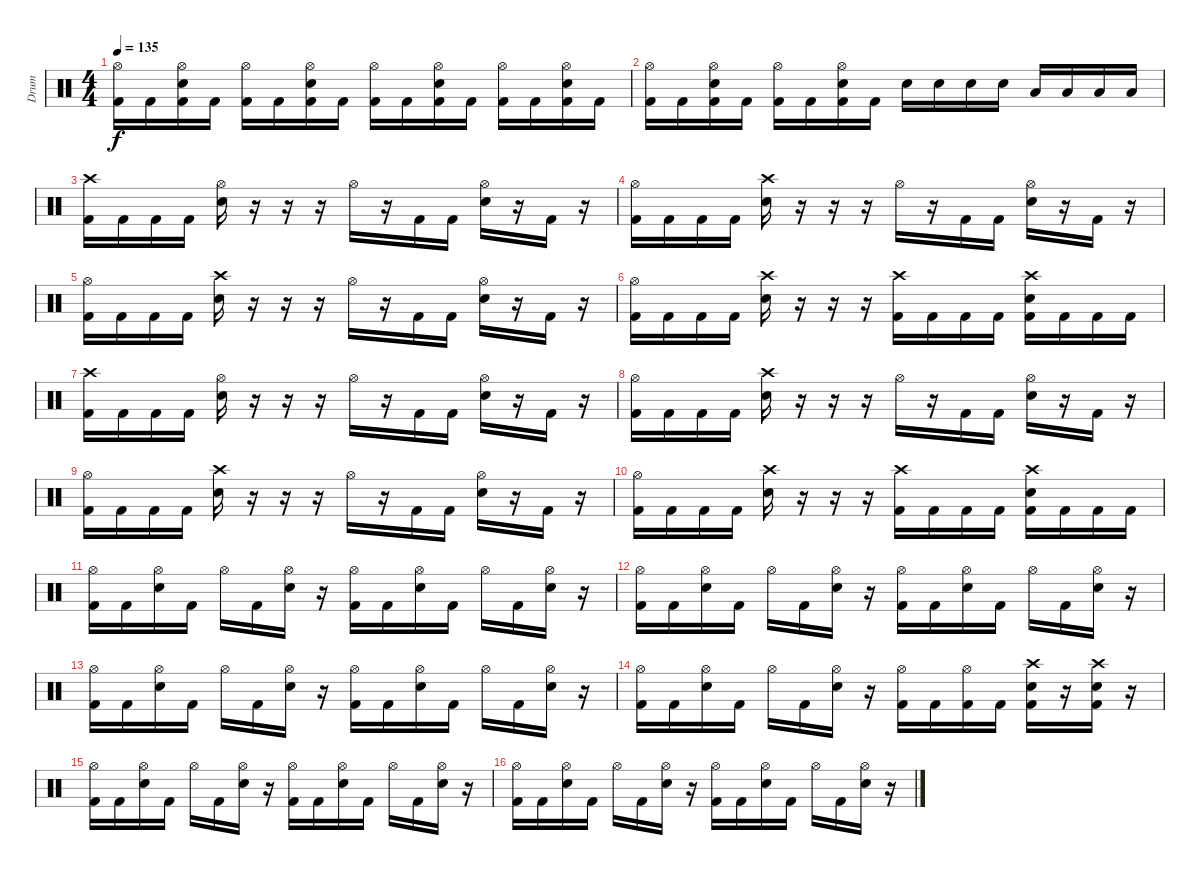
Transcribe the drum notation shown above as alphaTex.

\track ("Drum" "Drum") {instrument percussion}
\staff {score}
\articulation defaults
\ts (4 4)
\tempo 135
\clef neutral
\ks c
("Hi-Hat (open)" "Kick (hit) 2").16{dy f} "Kick (hit) 2".16 ("Hi-Hat (open)" "Electric Snare (hit)" "Kick (hit) 2").16 "Kick (hit) 2".16 ("Hi-Hat (open)" "Kick (hit) 2").16 "Kick (hit) 2".16 ("Hi-Hat (open)" "Electric Snare (hit)" "Kick (hit) 2").16 "Kick (hit) 2".16 ("Hi-Hat (open)" "Kick (hit) 2").16 "Kick (hit) 2".16 ("Hi-Hat (open)" "Electric Snare (hit)" "Kick (hit) 2").16 "Kick (hit) 2".16 ("Hi-Hat (open)" "Kick (hit) 2").16 "Kick (hit) 2".16 ("Hi-Hat (open)" "Electric Snare (hit)" "Kick (hit) 2").16 "Kick (hit) 2".16 |
("Hi-Hat (open)" "Kick (hit) 2").16 "Kick (hit) 2".16 ("Hi-Hat (open)" "Electric Snare (hit)" "Kick (hit) 2").16 "Kick (hit) 2".16 ("Hi-Hat (open)" "Kick (hit) 2").16 "Kick (hit) 2".16 ("Hi-Hat (open)" "Electric Snare (hit)" "Kick (hit) 2").16 "Kick (hit) 2".16 "Electric Snare (hit)".16 "Electric Snare (hit)".16 "Electric Snare (hit)".16 "Electric Snare (hit)".16 "Low Floor Tom (hit)".16 "Low Floor Tom (hit)".16 "Low Floor Tom (hit)".16 "Low Floor Tom (hit)".16 |
("Crash high (hit)" "Kick (hit) 2").16 "Kick (hit) 2".16 "Kick (hit) 2".16 "Kick (hit) 2".16 ("Hi-Hat (open)" "Electric Snare (hit)").16 r.16 r.16 r.16 "Hi-Hat (open)".16 r.16 "Kick (hit) 2".16 "Kick (hit) 2".16 ("Hi-Hat (open)" "Electric Snare (hit)").16 r.16 "Kick (hit) 2".16 r.16 |
("Hi-Hat (open)" "Kick (hit) 2").16 "Kick (hit) 2".16 "Kick (hit) 2".16 "Kick (hit) 2".16 ("Crash high (hit)" "Electric Snare (hit)").16 r.16 r.16 r.16 "Hi-Hat (open)".16 r.16 "Kick (hit) 2".16 "Kick (hit) 2".16 ("Hi-Hat (open)" "Electric Snare (hit)").16 r.16 "Kick (hit) 2".16 r.16 |
("Hi-Hat (open)" "Kick (hit) 2").16 "Kick (hit) 2".16 "Kick (hit) 2".16 "Kick (hit) 2".16 ("Crash high (hit)" "Electric Snare (hit)").16 r.16 r.16 r.16 "Hi-Hat (open)".16 r.16 "Kick (hit) 2".16 "Kick (hit) 2".16 ("Hi-Hat (open)" "Electric Snare (hit)").16 r.16 "Kick (hit) 2".16 r.16 |
("Hi-Hat (open)" "Kick (hit) 2").16 "Kick (hit) 2".16 "Kick (hit) 2".16 "Kick (hit) 2".16 ("Crash high (hit)" "Electric Snare (hit)").16 r.16 r.16 r.16 ("Crash high (hit)" "Kick (hit) 2").16 "Kick (hit) 2".16 "Kick (hit) 2".16 "Kick (hit) 2".16 ("Crash high (hit)" "Electric Snare (hit)" "Kick (hit) 2").16 "Kick (hit) 2".16 "Kick (hit) 2".16 "Kick (hit) 2".16 |
("Crash high (hit)" "Kick (hit) 2").16 "Kick (hit) 2".16 "Kick (hit) 2".16 "Kick (hit) 2".16 ("Hi-Hat (open)" "Electric Snare (hit)").16 r.16 r.16 r.16 "Hi-Hat (open)".16 r.16 "Kick (hit) 2".16 "Kick (hit) 2".16 ("Hi-Hat (open)" "Electric Snare (hit)").16 r.16 "Kick (hit) 2".16 r.16 |
("Hi-Hat (open)" "Kick (hit) 2").16 "Kick (hit) 2".16 "Kick (hit) 2".16 "Kick (hit) 2".16 ("Crash high (hit)" "Electric Snare (hit)").16 r.16 r.16 r.16 "Hi-Hat (open)".16 r.16 "Kick (hit) 2".16 "Kick (hit) 2".16 ("Hi-Hat (open)" "Electric Snare (hit)").16 r.16 "Kick (hit) 2".16 r.16 |
("Hi-Hat (open)" "Kick (hit) 2").16 "Kick (hit) 2".16 "Kick (hit) 2".16 "Kick (hit) 2".16 ("Crash high (hit)" "Electric Snare (hit)").16 r.16 r.16 r.16 "Hi-Hat (open)".16 r.16 "Kick (hit) 2".16 "Kick (hit) 2".16 ("Hi-Hat (open)" "Electric Snare (hit)").16 r.16 "Kick (hit) 2".16 r.16 |
("Hi-Hat (open)" "Kick (hit) 2").16 "Kick (hit) 2".16 "Kick (hit) 2".16 "Kick (hit) 2".16 ("Crash high (hit)" "Electric Snare (hit)").16 r.16 r.16 r.16 ("Crash high (hit)" "Kick (hit) 2").16 "Kick (hit) 2".16 "Kick (hit) 2".16 "Kick (hit) 2".16 ("Crash high (hit)" "Electric Snare (hit)" "Kick (hit) 2").16 "Kick (hit) 2".16 "Kick (hit) 2".16 "Kick (hit) 2".16 |
("Hi-Hat (open)" "Kick (hit) 2").16 "Kick (hit) 2".16 ("Hi-Hat (open)" "Electric Snare (hit)").16 "Kick (hit) 2".16 "Hi-Hat (open)".16 "Kick (hit) 2".16 ("Hi-Hat (open)" "Electric Snare (hit)").16 r.16 ("Hi-Hat (open)" "Kick (hit) 2").16 "Kick (hit) 2".16 ("Hi-Hat (open)" "Electric Snare (hit)").16 "Kick (hit) 2".16 "Hi-Hat (open)".16 "Kick (hit) 2".16 ("Hi-Hat (open)" "Electric Snare (hit)").16 r.16 |
("Hi-Hat (open)" "Kick (hit) 2").16 "Kick (hit) 2".16 ("Hi-Hat (open)" "Electric Snare (hit)").16 "Kick (hit) 2".16 "Hi-Hat (open)".16 "Kick (hit) 2".16 ("Hi-Hat (open)" "Electric Snare (hit)").16 r.16 ("Hi-Hat (open)" "Kick (hit) 2").16 "Kick (hit) 2".16 ("Hi-Hat (open)" "Electric Snare (hit)").16 "Kick (hit) 2".16 "Hi-Hat (open)".16 "Kick (hit) 2".16 ("Hi-Hat (open)" "Electric Snare (hit)").16 r.16 |
("Hi-Hat (open)" "Kick (hit) 2").16 "Kick (hit) 2".16 ("Hi-Hat (open)" "Electric Snare (hit)").16 "Kick (hit) 2".16 "Hi-Hat (open)".16 "Kick (hit) 2".16 ("Hi-Hat (open)" "Electric Snare (hit)").16 r.16 ("Hi-Hat (open)" "Kick (hit) 2").16 "Kick (hit) 2".16 ("Hi-Hat (open)" "Electric Snare (hit)").16 "Kick (hit) 2".16 "Hi-Hat (open)".16 "Kick (hit) 2".16 ("Hi-Hat (open)" "Electric Snare (hit)").16 r.16 |
("Hi-Hat (open)" "Kick (hit) 2").16 "Kick (hit) 2".16 ("Hi-Hat (open)" "Electric Snare (hit)").16 "Kick (hit) 2".16 "Hi-Hat (open)".16 "Kick (hit) 2".16 ("Hi-Hat (open)" "Electric Snare (hit)").16 r.16 ("Hi-Hat (open)" "Kick (hit) 2").16 "Kick (hit) 2".16 ("Hi-Hat (open)" "Kick (hit) 2").16 "Kick (hit) 2".16 ("Crash high (hit)" "Electric Snare (hit)" "Kick (hit) 2").16 r.16 ("Crash high (hit)" "Electric Snare (hit)" "Kick (hit) 2").16 r.16 |
("Hi-Hat (open)" "Kick (hit) 2").16 "Kick (hit) 2".16 ("Hi-Hat (open)" "Electric Snare (hit)").16 "Kick (hit) 2".16 "Hi-Hat (open)".16 "Kick (hit) 2".16 ("Hi-Hat (open)" "Electric Snare (hit)").16 r.16 ("Hi-Hat (open)" "Kick (hit) 2").16 "Kick (hit) 2".16 ("Hi-Hat (open)" "Electric Snare (hit)").16 "Kick (hit) 2".16 "Hi-Hat (open)".16 "Kick (hit) 2".16 ("Hi-Hat (open)" "Electric Snare (hit)").16 r.16 |
("Hi-Hat (open)" "Kick (hit) 2").16 "Kick (hit) 2".16 ("Hi-Hat (open)" "Electric Snare (hit)").16 "Kick (hit) 2".16 "Hi-Hat (open)".16 "Kick (hit) 2".16 ("Hi-Hat (open)" "Electric Snare (hit)").16 r.16 ("Hi-Hat (open)" "Kick (hit) 2").16 "Kick (hit) 2".16 ("Hi-Hat (open)" "Electric Snare (hit)").16 "Kick (hit) 2".16 "Hi-Hat (open)".16 "Kick (hit) 2".16 ("Hi-Hat (open)" "Electric Snare (hit)").16 r.16
